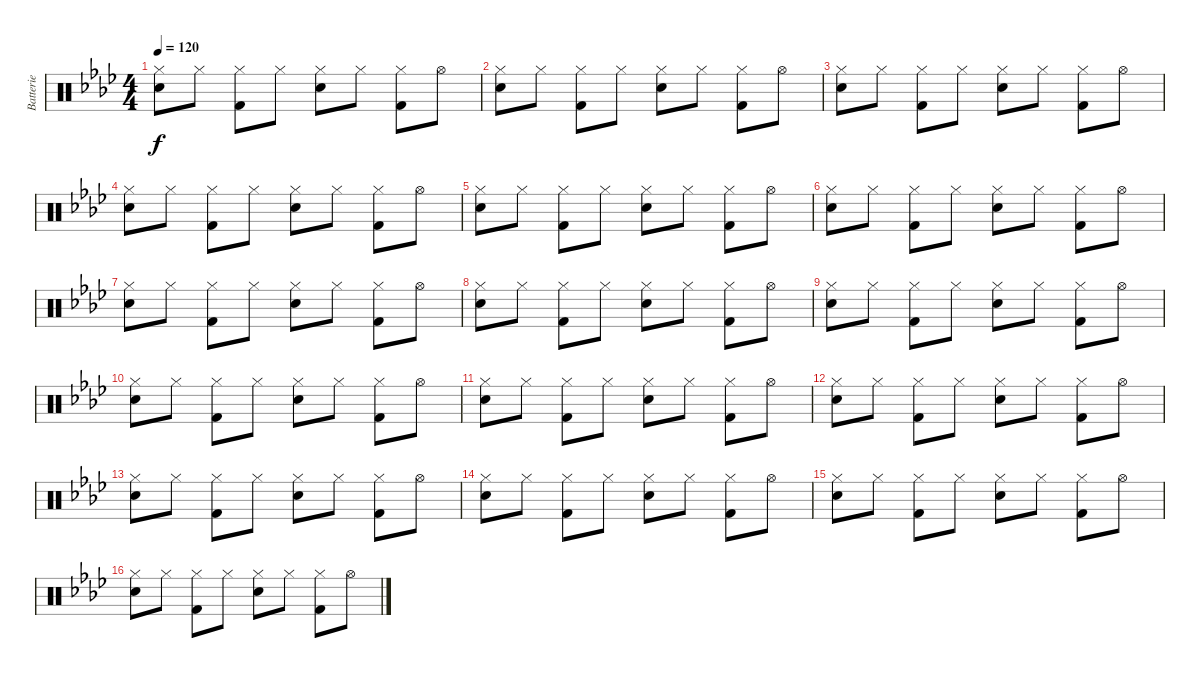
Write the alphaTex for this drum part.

\track ("Batterie" "Batterie") {instrument percussion}
\staff {score}
\articulation defaults
\ts (4 4)
\tempo 120
\clef neutral
\ks ab
("Hi-Hat (closed)" "Snare (hit) 2").8{dy f} "Hi-Hat (closed)".8 ("Hi-Hat (closed)" "Kick (hit) 2").8 "Hi-Hat (closed)".8 ("Hi-Hat (closed)" "Snare (hit) 2").8 "Hi-Hat (closed)".8 ("Hi-Hat (closed)" "Kick (hit) 2").8 "Hi-Hat (open)".8 |
("Hi-Hat (closed)" "Snare (hit) 2").8 "Hi-Hat (closed)".8 ("Hi-Hat (closed)" "Kick (hit) 2").8 "Hi-Hat (closed)".8 ("Hi-Hat (closed)" "Snare (hit) 2").8 "Hi-Hat (closed)".8 ("Hi-Hat (closed)" "Kick (hit) 2").8 "Hi-Hat (open)".8 |
("Hi-Hat (closed)" "Snare (hit) 2").8 "Hi-Hat (closed)".8 ("Hi-Hat (closed)" "Kick (hit) 2").8 "Hi-Hat (closed)".8 ("Hi-Hat (closed)" "Snare (hit) 2").8 "Hi-Hat (closed)".8 ("Hi-Hat (closed)" "Kick (hit) 2").8 "Hi-Hat (open)".8 |
("Hi-Hat (closed)" "Snare (hit) 2").8 "Hi-Hat (closed)".8 ("Hi-Hat (closed)" "Kick (hit) 2").8 "Hi-Hat (closed)".8 ("Hi-Hat (closed)" "Snare (hit) 2").8 "Hi-Hat (closed)".8 ("Hi-Hat (closed)" "Kick (hit) 2").8 "Hi-Hat (open)".8 |
("Hi-Hat (closed)" "Snare (hit) 2").8 "Hi-Hat (closed)".8 ("Hi-Hat (closed)" "Kick (hit) 2").8 "Hi-Hat (closed)".8 ("Hi-Hat (closed)" "Snare (hit) 2").8 "Hi-Hat (closed)".8 ("Hi-Hat (closed)" "Kick (hit) 2").8 "Hi-Hat (open)".8 |
("Hi-Hat (closed)" "Snare (hit) 2").8 "Hi-Hat (closed)".8 ("Hi-Hat (closed)" "Kick (hit) 2").8 "Hi-Hat (closed)".8 ("Hi-Hat (closed)" "Snare (hit) 2").8 "Hi-Hat (closed)".8 ("Hi-Hat (closed)" "Kick (hit) 2").8 "Hi-Hat (open)".8 |
("Hi-Hat (closed)" "Snare (hit) 2").8 "Hi-Hat (closed)".8 ("Hi-Hat (closed)" "Kick (hit) 2").8 "Hi-Hat (closed)".8 ("Hi-Hat (closed)" "Snare (hit) 2").8 "Hi-Hat (closed)".8 ("Hi-Hat (closed)" "Kick (hit) 2").8 "Hi-Hat (open)".8 |
("Hi-Hat (closed)" "Snare (hit) 2").8 "Hi-Hat (closed)".8 ("Hi-Hat (closed)" "Kick (hit) 2").8 "Hi-Hat (closed)".8 ("Hi-Hat (closed)" "Snare (hit) 2").8 "Hi-Hat (closed)".8 ("Hi-Hat (closed)" "Kick (hit) 2").8 "Hi-Hat (open)".8 |
("Hi-Hat (closed)" "Snare (hit) 2").8 "Hi-Hat (closed)".8 ("Hi-Hat (closed)" "Kick (hit) 2").8 "Hi-Hat (closed)".8 ("Hi-Hat (closed)" "Snare (hit) 2").8 "Hi-Hat (closed)".8 ("Hi-Hat (closed)" "Kick (hit) 2").8 "Hi-Hat (open)".8 |
("Hi-Hat (closed)" "Snare (hit) 2").8 "Hi-Hat (closed)".8 ("Hi-Hat (closed)" "Kick (hit) 2").8 "Hi-Hat (closed)".8 ("Hi-Hat (closed)" "Snare (hit) 2").8 "Hi-Hat (closed)".8 ("Hi-Hat (closed)" "Kick (hit) 2").8 "Hi-Hat (open)".8 |
("Hi-Hat (closed)" "Snare (hit) 2").8 "Hi-Hat (closed)".8 ("Hi-Hat (closed)" "Kick (hit) 2").8 "Hi-Hat (closed)".8 ("Hi-Hat (closed)" "Snare (hit) 2").8 "Hi-Hat (closed)".8 ("Hi-Hat (closed)" "Kick (hit) 2").8 "Hi-Hat (open)".8 |
("Hi-Hat (closed)" "Snare (hit) 2").8 "Hi-Hat (closed)".8 ("Hi-Hat (closed)" "Kick (hit) 2").8 "Hi-Hat (closed)".8 ("Hi-Hat (closed)" "Snare (hit) 2").8 "Hi-Hat (closed)".8 ("Hi-Hat (closed)" "Kick (hit) 2").8 "Hi-Hat (open)".8 |
("Hi-Hat (closed)" "Snare (hit) 2").8 "Hi-Hat (closed)".8 ("Hi-Hat (closed)" "Kick (hit) 2").8 "Hi-Hat (closed)".8 ("Hi-Hat (closed)" "Snare (hit) 2").8 "Hi-Hat (closed)".8 ("Hi-Hat (closed)" "Kick (hit) 2").8 "Hi-Hat (open)".8 |
("Hi-Hat (closed)" "Snare (hit) 2").8 "Hi-Hat (closed)".8 ("Hi-Hat (closed)" "Kick (hit) 2").8 "Hi-Hat (closed)".8 ("Hi-Hat (closed)" "Snare (hit) 2").8 "Hi-Hat (closed)".8 ("Hi-Hat (closed)" "Kick (hit) 2").8 "Hi-Hat (open)".8 |
("Hi-Hat (closed)" "Snare (hit) 2").8 "Hi-Hat (closed)".8 ("Hi-Hat (closed)" "Kick (hit) 2").8 "Hi-Hat (closed)".8 ("Hi-Hat (closed)" "Snare (hit) 2").8 "Hi-Hat (closed)".8 ("Hi-Hat (closed)" "Kick (hit) 2").8 "Hi-Hat (open)".8 |
("Hi-Hat (closed)" "Snare (hit) 2").8 "Hi-Hat (closed)".8 ("Hi-Hat (closed)" "Kick (hit) 2").8 "Hi-Hat (closed)".8 ("Hi-Hat (closed)" "Snare (hit) 2").8 "Hi-Hat (closed)".8 ("Hi-Hat (closed)" "Kick (hit) 2").8 "Hi-Hat (open)".8
